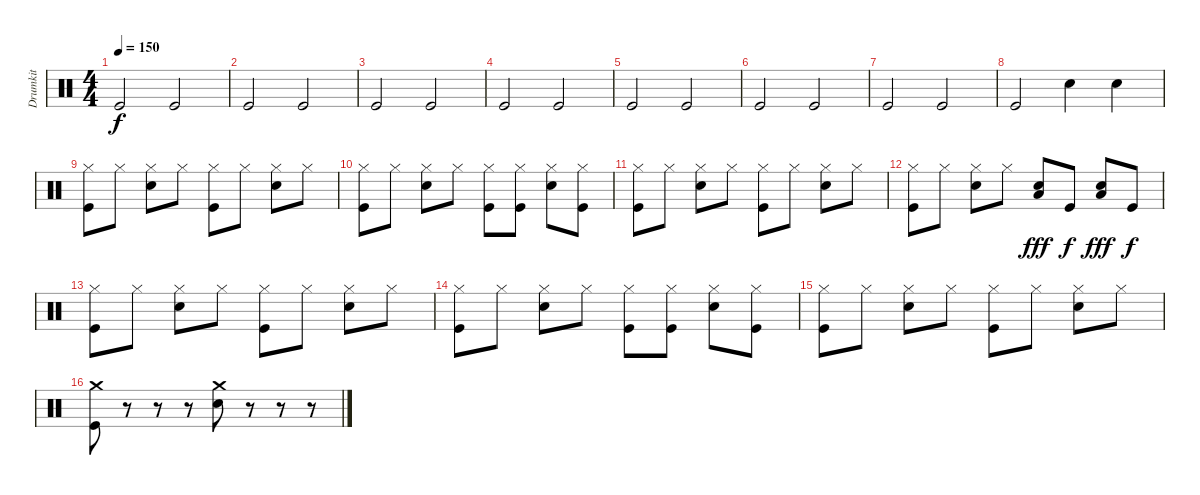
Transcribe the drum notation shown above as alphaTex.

\track ("Drumkit" "Drumkit") {instrument percussion}
\staff {score}
\articulation defaults
\ts (4 4)
\tempo 150
\clef neutral
\ks c "Kick (hit)".2{dy f} "Kick (hit)".2
|
"Kick (hit)".2 "Kick (hit)".2 |
"Kick (hit)".2 "Kick (hit)".2 |
"Kick (hit)".2 "Kick (hit)".2 |
"Kick (hit)".2 "Kick (hit)".2 |
"Kick (hit)".2 "Kick (hit)".2 |
"Kick (hit)".2 "Kick (hit)".2 |
"Kick (hit)".2 "Snare (hit) 2".4 "Snare (hit) 2".4 |
("Hi-Hat (closed)" "Kick (hit)").8 "Hi-Hat (closed)".8 ("Hi-Hat (closed)" "Snare (hit) 2").8 "Hi-Hat (closed)".8 ("Hi-Hat (closed)" "Kick (hit)").8 "Hi-Hat (closed)".8 ("Hi-Hat (closed)" "Snare (hit) 2").8 "Hi-Hat (closed)".8 |
("Hi-Hat (closed)" "Kick (hit)").8 "Hi-Hat (closed)".8 ("Hi-Hat (closed)" "Snare (hit) 2").8 "Hi-Hat (closed)".8 ("Hi-Hat (closed)" "Kick (hit)").8 ("Hi-Hat (closed)" "Kick (hit)").8 ("Hi-Hat (closed)" "Snare (hit) 2").8 ("Hi-Hat (closed)" "Kick (hit)").8 |
("Hi-Hat (closed)" "Kick (hit)").8 "Hi-Hat (closed)".8 ("Hi-Hat (closed)" "Snare (hit) 2").8 "Hi-Hat (closed)".8 ("Hi-Hat (closed)" "Kick (hit)").8 "Hi-Hat (closed)".8 ("Hi-Hat (closed)" "Snare (hit) 2").8 "Hi-Hat (closed)".8 |
("Hi-Hat (closed)" "Kick (hit)").8 "Hi-Hat (closed)".8 ("Hi-Hat (closed)" "Snare (hit) 2").8 "Hi-Hat (closed)".8 ("Low Tom (hit)" "Snare (hit) 2").8{dy fff} "Kick (hit)".8{dy f} ("Low Tom (hit)" "Snare (hit) 2").8{dy fff} "Kick (hit)".8{dy f} |
("Hi-Hat (closed)" "Kick (hit)").8 "Hi-Hat (closed)".8 ("Hi-Hat (closed)" "Snare (hit) 2").8 "Hi-Hat (closed)".8 ("Hi-Hat (closed)" "Kick (hit)").8 "Hi-Hat (closed)".8 ("Hi-Hat (closed)" "Snare (hit) 2").8 "Hi-Hat (closed)".8 |
("Hi-Hat (closed)" "Kick (hit)").8 "Hi-Hat (closed)".8 ("Hi-Hat (closed)" "Snare (hit) 2").8 "Hi-Hat (closed)".8 ("Hi-Hat (closed)" "Kick (hit)").8 ("Hi-Hat (closed)" "Kick (hit)").8 ("Hi-Hat (closed)" "Snare (hit) 2").8 ("Hi-Hat (closed)" "Kick (hit)").8 |
("Hi-Hat (closed)" "Kick (hit)").8 "Hi-Hat (closed)".8 ("Hi-Hat (closed)" "Snare (hit) 2").8 "Hi-Hat (closed)".8 ("Hi-Hat (closed)" "Kick (hit)").8 "Hi-Hat (closed)".8 ("Hi-Hat (closed)" "Snare (hit) 2").8 "Hi-Hat (closed)".8 |
("Kick (hit)" "Crash medium (hit)").8 r.8 r.8 r.8 ("Crash medium (hit)" "Snare (hit) 2").8 r.8 r.8 r.8
